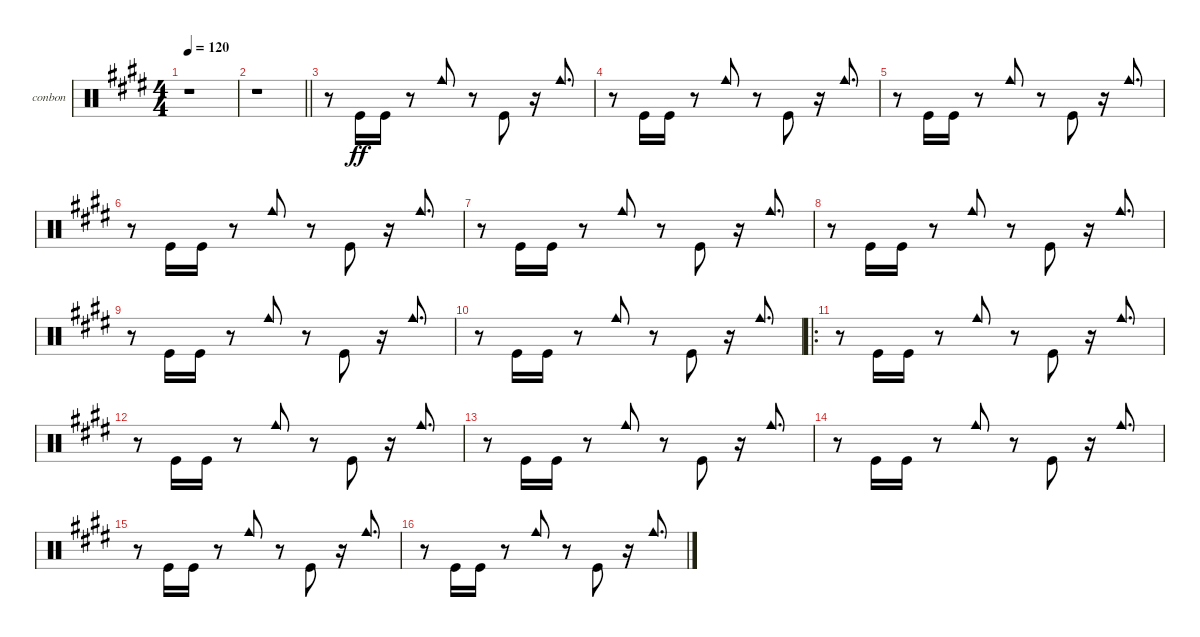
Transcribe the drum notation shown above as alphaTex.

\defaultSystemsLayout 4
\bracketExtendMode groupsimilarinstruments
\firstSystemTrackNameOrientation horizontal
\otherSystemsTrackNameOrientation horizontal
\track ("Bongos N Congas" "conbon") {instrument percussion}
\staff {score}
\articulation defaults
\ts (4 4)
\tempo 120
\clef neutral
\scale
0.333333
\ks e
r.1{dy ff} |
\scale
0.333333
\barLineRight lightlight
r.1 |
\scale
0.333333 r.8{beam invert} "Kick (hit)".16{beam invert} "Kick (hit)".16 r.8{beam invert} "Cowbell medium (hit)".8{beam invert} r.8{beam invert} "Kick (hit)".8{beam invert} r.16{beam invert} "Cowbell medium (hit)".8{d beam invert} |
\scale
0.333333 r.8{beam invert} "Kick (hit)".16{beam invert} "Kick (hit)".16 r.8{beam invert} "Cowbell medium (hit)".8{beam invert} r.8{beam invert} "Kick (hit)".8{beam invert} r.16{beam invert} "Cowbell medium (hit)".8{d beam invert} |
\scale
0.333333 r.8{beam invert} "Kick (hit)".16{beam invert} "Kick (hit)".16 r.8{beam invert} "Cowbell medium (hit)".8{beam invert} r.8{beam invert} "Kick (hit)".8{beam invert} r.16{beam invert} "Cowbell medium (hit)".8{d beam invert} |
\scale
0.333333 r.8{beam invert} "Kick (hit)".16{beam invert} "Kick (hit)".16 r.8{beam invert} "Cowbell medium (hit)".8{beam invert} r.8{beam invert} "Kick (hit)".8{beam invert} r.16{beam invert} "Cowbell medium (hit)".8{d beam invert} |
\scale
0.333333 r.8{beam invert} "Kick (hit)".16{beam invert} "Kick (hit)".16 r.8{beam invert} "Cowbell medium (hit)".8{beam invert} r.8{beam invert} "Kick (hit)".8{beam invert} r.16{beam invert} "Cowbell medium (hit)".8{d beam invert} |
\scale
0.333333 r.8{beam invert} "Kick (hit)".16{beam invert} "Kick (hit)".16 r.8{beam invert} "Cowbell medium (hit)".8{beam invert} r.8{beam invert} "Kick (hit)".8{beam invert} r.16{beam invert} "Cowbell medium (hit)".8{d beam invert} |
\scale
0.333333 r.8{beam invert} "Kick (hit)".16{beam invert} "Kick (hit)".16 r.8{beam invert} "Cowbell medium (hit)".8{beam invert} r.8{beam invert} "Kick (hit)".8{beam invert} r.16{beam invert} "Cowbell medium (hit)".8{d beam invert} |
\scale
0.311475 r.8{beam invert} "Kick (hit)".16{beam invert} "Kick (hit)".16 r.8{beam invert} "Cowbell medium (hit)".8{beam invert} r.8{beam invert} "Kick (hit)".8{beam invert} r.16{beam invert} "Cowbell medium (hit)".8{d beam invert} |
\ro
\scale
0.377049 r.8{beam invert} "Kick (hit)".16{beam invert} "Kick (hit)".16 r.8{beam invert} "Cowbell medium (hit)".8{beam invert} r.8{beam invert} "Kick (hit)".8{beam invert} r.16{beam invert} "Cowbell medium (hit)".8{d beam invert} |
\scale
0.311475 r.8{beam invert} "Kick (hit)".16{beam invert} "Kick (hit)".16 r.8{beam invert} "Cowbell medium (hit)".8{beam invert} r.8{beam invert} "Kick (hit)".8{beam invert} r.16{beam invert} "Cowbell medium (hit)".8{d beam invert} |
\scale
0.333333 r.8{beam invert} "Kick (hit)".16{beam invert} "Kick (hit)".16 r.8{beam invert} "Cowbell medium (hit)".8{beam invert} r.8{beam invert} "Kick (hit)".8{beam invert} r.16{beam invert} "Cowbell medium (hit)".8{d beam invert} |
\scale
0.333333 r.8{beam invert} "Kick (hit)".16{beam invert} "Kick (hit)".16 r.8{beam invert} "Cowbell medium (hit)".8{beam invert} r.8{beam invert} "Kick (hit)".8{beam invert} r.16{beam invert} "Cowbell medium (hit)".8{d beam invert} |
\scale
0.333333 r.8{beam invert} "Kick (hit)".16{beam invert} "Kick (hit)".16 r.8{beam invert} "Cowbell medium (hit)".8{beam invert} r.8{beam invert} "Kick (hit)".8{beam invert} r.16{beam invert} "Cowbell medium (hit)".8{d beam invert} |
\scale
0.322034 r.8{beam invert} "Kick (hit)".16{beam invert} "Kick (hit)".16 r.8{beam invert} "Cowbell medium (hit)".8{beam invert} r.8{beam invert} "Kick (hit)".8{beam invert} r.16{beam invert} "Cowbell medium (hit)".8{d beam invert}
